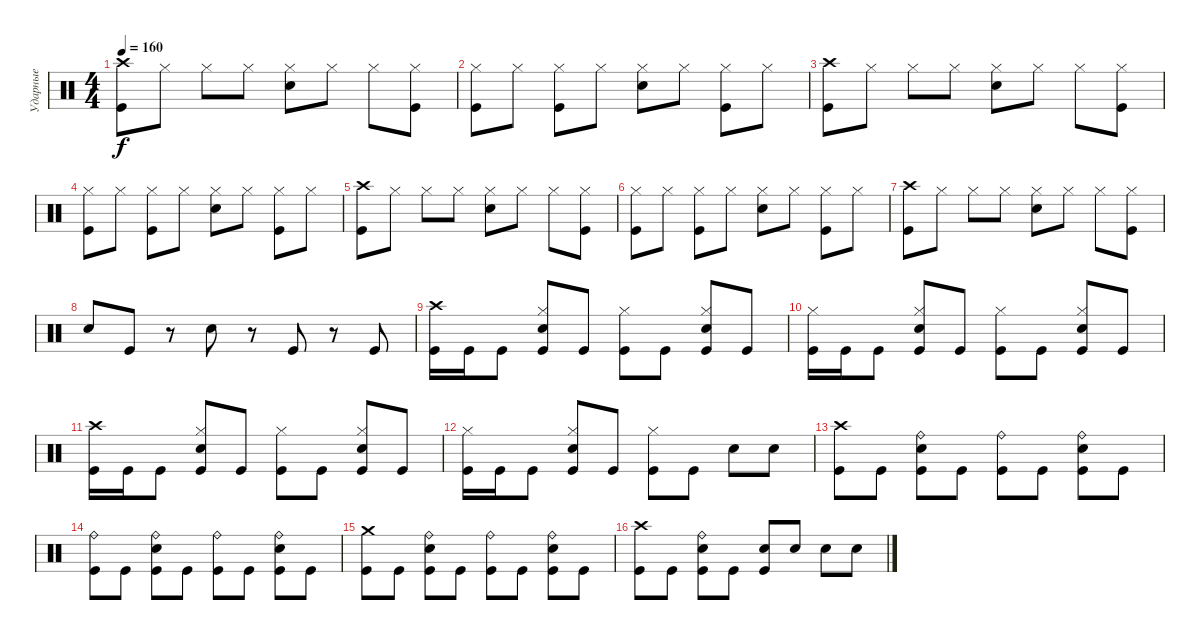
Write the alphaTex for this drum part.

\track ("Ударные" "Ударные") {instrument percussion}
\staff {score}
\articulation defaults
\ts (4 4)
\tempo 160
\clef neutral
\ks c
("Crash high (hit)" "Kick (hit)").8{dy f} "Hi-Hat (closed)".8 "Hi-Hat (closed)".8 "Hi-Hat (closed)".8 ("Hi-Hat (closed)" "Electric Snare (hit)").8 "Hi-Hat (closed)".8 "Hi-Hat (closed)".8 ("Hi-Hat (closed)" "Kick (hit)").8 |
("Hi-Hat (closed)" "Kick (hit)").8 "Hi-Hat (closed)".8 ("Hi-Hat (closed)" "Kick (hit)").8 "Hi-Hat (closed)".8 ("Hi-Hat (closed)" "Electric Snare (hit)").8 "Hi-Hat (closed)".8 ("Hi-Hat (closed)" "Kick (hit)").8 "Hi-Hat (closed)".8 |
("Crash high (hit)" "Kick (hit)").8 "Hi-Hat (closed)".8 "Hi-Hat (closed)".8 "Hi-Hat (closed)".8 ("Hi-Hat (closed)" "Electric Snare (hit)").8 "Hi-Hat (closed)".8 "Hi-Hat (closed)".8 ("Hi-Hat (closed)" "Kick (hit)").8 |
("Hi-Hat (closed)" "Kick (hit)").8 "Hi-Hat (closed)".8 ("Hi-Hat (closed)" "Kick (hit)").8 "Hi-Hat (closed)".8 ("Hi-Hat (closed)" "Electric Snare (hit)").8 "Hi-Hat (closed)".8 ("Hi-Hat (closed)" "Kick (hit)").8 "Hi-Hat (closed)".8 |
("Crash high (hit)" "Kick (hit)").8 "Hi-Hat (closed)".8 "Hi-Hat (closed)".8 "Hi-Hat (closed)".8 ("Hi-Hat (closed)" "Electric Snare (hit)").8 "Hi-Hat (closed)".8 "Hi-Hat (closed)".8 ("Hi-Hat (closed)" "Kick (hit)").8 |
("Hi-Hat (closed)" "Kick (hit)").8 "Hi-Hat (closed)".8 ("Hi-Hat (closed)" "Kick (hit)").8 "Hi-Hat (closed)".8 ("Hi-Hat (closed)" "Electric Snare (hit)").8 "Hi-Hat (closed)".8 ("Hi-Hat (closed)" "Kick (hit)").8 "Hi-Hat (closed)".8 |
("Crash high (hit)" "Kick (hit)").8 "Hi-Hat (closed)".8 "Hi-Hat (closed)".8 "Hi-Hat (closed)".8 ("Hi-Hat (closed)" "Electric Snare (hit)").8 "Hi-Hat (closed)".8 "Hi-Hat (closed)".8 ("Hi-Hat (closed)" "Kick (hit)").8 |
"Electric Snare (hit)".8 "Kick (hit)".8 r.8 "Electric Snare (hit)".8 r.8 "Kick (hit)".8 r.8 "Kick (hit)".8 |
("Crash high (hit)" "Kick (hit)").16 "Kick (hit)".16 "Kick (hit)".8 ("Hi-Hat (closed)" "Electric Snare (hit)" "Kick (hit)").8 "Kick (hit)".8 ("Hi-Hat (closed)" "Kick (hit)").8 "Kick (hit)".8 ("Hi-Hat (closed)" "Electric Snare (hit)" "Kick (hit)").8 "Kick (hit)".8 |
("Hi-Hat (closed)" "Kick (hit)").16 "Kick (hit)".16 "Kick (hit)".8 ("Hi-Hat (closed)" "Electric Snare (hit)" "Kick (hit)").8 "Kick (hit)".8 ("Hi-Hat (closed)" "Kick (hit)").8 "Kick (hit)".8 ("Hi-Hat (closed)" "Electric Snare (hit)" "Kick (hit)").8 "Kick (hit)".8 |
("Crash high (hit)" "Kick (hit)").16 "Kick (hit)".16 "Kick (hit)".8 ("Hi-Hat (closed)" "Electric Snare (hit)" "Kick (hit)").8 "Kick (hit)".8 ("Hi-Hat (closed)" "Kick (hit)").8 "Kick (hit)".8 ("Hi-Hat (closed)" "Electric Snare (hit)" "Kick (hit)").8 "Kick (hit)".8 |
("Hi-Hat (closed)" "Kick (hit)").16 "Kick (hit)".16 "Kick (hit)".8 ("Hi-Hat (closed)" "Electric Snare (hit)" "Kick (hit)").8 "Kick (hit)".8 ("Hi-Hat (closed)" "Kick (hit)").8 "Kick (hit)".8 "Electric Snare (hit)".8 "Electric Snare (hit)".8 |
("Crash high (hit)" "Kick (hit)").8 "Kick (hit)".8 ("Ride (bell)" "Electric Snare (hit)" "Kick (hit)").8 "Kick (hit)".8 ("Ride (bell)" "Kick (hit)").8 "Kick (hit)".8 ("Ride (bell)" "Electric Snare (hit)" "Kick (hit)").8 "Kick (hit)".8 |
("Ride (bell)" "Kick (hit)").8 "Kick (hit)".8 ("Ride (bell)" "Electric Snare (hit)" "Kick (hit)").8 "Kick (hit)".8 ("Ride (bell)" "Kick (hit)").8 "Kick (hit)".8 ("Ride (bell)" "Electric Snare (hit)" "Kick (hit)").8 "Kick (hit)".8 |
("Crash medium (hit)" "Kick (hit)").8 "Kick (hit)".8 ("Ride (bell)" "Electric Snare (hit)" "Kick (hit)").8 "Kick (hit)".8 ("Ride (bell)" "Kick (hit)").8 "Kick (hit)".8 ("Ride (bell)" "Electric Snare (hit)" "Kick (hit)").8 "Kick (hit)".8 |
("Crash high (hit)" "Kick (hit)").8 "Kick (hit)".8 ("Ride (bell)" "Electric Snare (hit)" "Kick (hit)").8 "Kick (hit)".8 ("Electric Snare (hit)" "Kick (hit)").8 "Electric Snare (hit)".8 "Electric Snare (hit)".8 "Electric Snare (hit)".8
